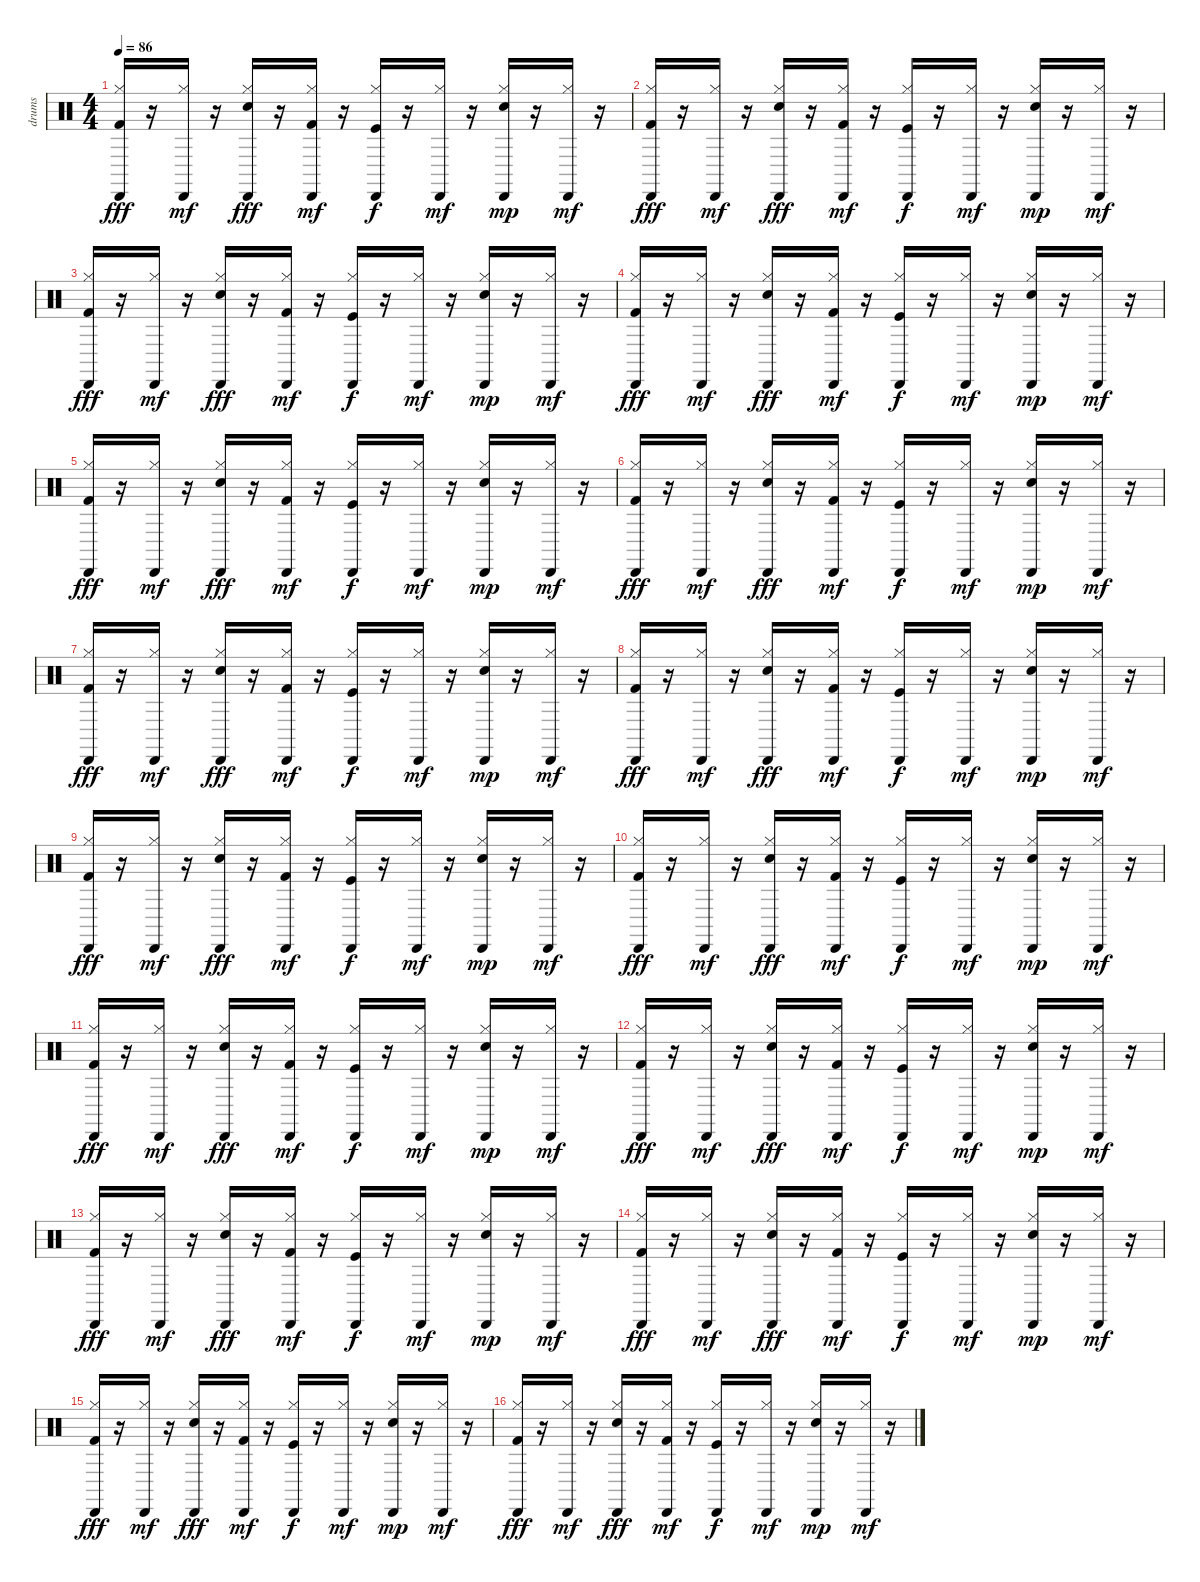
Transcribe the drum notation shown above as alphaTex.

\track ("drums" "drums") {instrument percussion}
\staff {score}
\articulation defaults
\ts (4 4)
\tempo 86
\clef neutral
\ks c
("Kick (hit) 2" "Hi-Hat (closed)" "Cabasa (hit)").16{dy fff} r.16 ("Hi-Hat (closed)" "Cabasa (hit)").16{dy mf} r.16 ("Snare (hit) 2" "Hi-Hat (closed)" "Cabasa (hit)").16{dy fff} r.16 ("Kick (hit) 2" "Hi-Hat (closed)" "Cabasa (hit)").16{dy mf} r.16 ("Kick (hit)" "Hi-Hat (closed)" "Cabasa (hit)").16{dy f} r.16 ("Hi-Hat (closed)" "Cabasa (hit)").16{dy mf} r.16 ("Snare (hit) 2" "Hi-Hat (closed)" "Cabasa (hit)").16{dy mp} r.16 ("Hi-Hat (closed)" "Cabasa (hit)").16{dy mf} r.16 |
("Kick (hit) 2" "Hi-Hat (closed)" "Cabasa (hit)").16{dy fff} r.16 ("Hi-Hat (closed)" "Cabasa (hit)").16{dy mf} r.16 ("Snare (hit) 2" "Hi-Hat (closed)" "Cabasa (hit)").16{dy fff} r.16 ("Kick (hit) 2" "Hi-Hat (closed)" "Cabasa (hit)").16{dy mf} r.16 ("Kick (hit)" "Hi-Hat (closed)" "Cabasa (hit)").16{dy f} r.16 ("Hi-Hat (closed)" "Cabasa (hit)").16{dy mf} r.16 ("Snare (hit) 2" "Hi-Hat (closed)" "Cabasa (hit)").16{dy mp} r.16 ("Hi-Hat (closed)" "Cabasa (hit)").16{dy mf} r.16 |
("Kick (hit) 2" "Hi-Hat (closed)" "Cabasa (hit)").16{dy fff} r.16 ("Hi-Hat (closed)" "Cabasa (hit)").16{dy mf} r.16 ("Snare (hit) 2" "Hi-Hat (closed)" "Cabasa (hit)").16{dy fff} r.16 ("Kick (hit) 2" "Hi-Hat (closed)" "Cabasa (hit)").16{dy mf} r.16 ("Kick (hit)" "Hi-Hat (closed)" "Cabasa (hit)").16{dy f} r.16 ("Hi-Hat (closed)" "Cabasa (hit)").16{dy mf} r.16 ("Snare (hit) 2" "Hi-Hat (closed)" "Cabasa (hit)").16{dy mp} r.16 ("Hi-Hat (closed)" "Cabasa (hit)").16{dy mf} r.16 |
("Kick (hit) 2" "Hi-Hat (closed)" "Cabasa (hit)").16{dy fff} r.16 ("Hi-Hat (closed)" "Cabasa (hit)").16{dy mf} r.16 ("Snare (hit) 2" "Hi-Hat (closed)" "Cabasa (hit)").16{dy fff} r.16 ("Kick (hit) 2" "Hi-Hat (closed)" "Cabasa (hit)").16{dy mf} r.16 ("Kick (hit)" "Hi-Hat (closed)" "Cabasa (hit)").16{dy f} r.16 ("Hi-Hat (closed)" "Cabasa (hit)").16{dy mf} r.16 ("Snare (hit) 2" "Hi-Hat (closed)" "Cabasa (hit)").16{dy mp} r.16 ("Hi-Hat (closed)" "Cabasa (hit)").16{dy mf} r.16 |
("Kick (hit) 2" "Hi-Hat (closed)" "Cabasa (hit)").16{dy fff} r.16 ("Hi-Hat (closed)" "Cabasa (hit)").16{dy mf} r.16 ("Snare (hit) 2" "Hi-Hat (closed)" "Cabasa (hit)").16{dy fff} r.16 ("Kick (hit) 2" "Hi-Hat (closed)" "Cabasa (hit)").16{dy mf} r.16 ("Kick (hit)" "Hi-Hat (closed)" "Cabasa (hit)").16{dy f} r.16 ("Hi-Hat (closed)" "Cabasa (hit)").16{dy mf} r.16 ("Snare (hit) 2" "Hi-Hat (closed)" "Cabasa (hit)").16{dy mp} r.16 ("Hi-Hat (closed)" "Cabasa (hit)").16{dy mf} r.16 |
("Kick (hit) 2" "Hi-Hat (closed)" "Cabasa (hit)").16{dy fff} r.16 ("Hi-Hat (closed)" "Cabasa (hit)").16{dy mf} r.16 ("Snare (hit) 2" "Hi-Hat (closed)" "Cabasa (hit)").16{dy fff} r.16 ("Kick (hit) 2" "Hi-Hat (closed)" "Cabasa (hit)").16{dy mf} r.16 ("Kick (hit)" "Hi-Hat (closed)" "Cabasa (hit)").16{dy f} r.16 ("Hi-Hat (closed)" "Cabasa (hit)").16{dy mf} r.16 ("Snare (hit) 2" "Hi-Hat (closed)" "Cabasa (hit)").16{dy mp} r.16 ("Hi-Hat (closed)" "Cabasa (hit)").16{dy mf} r.16 |
("Kick (hit) 2" "Hi-Hat (closed)" "Cabasa (hit)").16{dy fff} r.16 ("Hi-Hat (closed)" "Cabasa (hit)").16{dy mf} r.16 ("Snare (hit) 2" "Hi-Hat (closed)" "Cabasa (hit)").16{dy fff} r.16 ("Kick (hit) 2" "Hi-Hat (closed)" "Cabasa (hit)").16{dy mf} r.16 ("Kick (hit)" "Hi-Hat (closed)" "Cabasa (hit)").16{dy f} r.16 ("Hi-Hat (closed)" "Cabasa (hit)").16{dy mf} r.16 ("Snare (hit) 2" "Hi-Hat (closed)" "Cabasa (hit)").16{dy mp} r.16 ("Hi-Hat (closed)" "Cabasa (hit)").16{dy mf} r.16 |
("Kick (hit) 2" "Hi-Hat (closed)" "Cabasa (hit)").16{dy fff} r.16 ("Hi-Hat (closed)" "Cabasa (hit)").16{dy mf} r.16 ("Snare (hit) 2" "Hi-Hat (closed)" "Cabasa (hit)").16{dy fff} r.16 ("Kick (hit) 2" "Hi-Hat (closed)" "Cabasa (hit)").16{dy mf} r.16 ("Kick (hit)" "Hi-Hat (closed)" "Cabasa (hit)").16{dy f} r.16 ("Hi-Hat (closed)" "Cabasa (hit)").16{dy mf} r.16 ("Snare (hit) 2" "Hi-Hat (closed)" "Cabasa (hit)").16{dy mp} r.16 ("Hi-Hat (closed)" "Cabasa (hit)").16{dy mf} r.16 |
("Kick (hit) 2" "Hi-Hat (closed)" "Cabasa (hit)").16{dy fff} r.16 ("Hi-Hat (closed)" "Cabasa (hit)").16{dy mf} r.16 ("Snare (hit) 2" "Hi-Hat (closed)" "Cabasa (hit)").16{dy fff} r.16 ("Kick (hit) 2" "Hi-Hat (closed)" "Cabasa (hit)").16{dy mf} r.16 ("Kick (hit)" "Hi-Hat (closed)" "Cabasa (hit)").16{dy f} r.16 ("Hi-Hat (closed)" "Cabasa (hit)").16{dy mf} r.16 ("Snare (hit) 2" "Hi-Hat (closed)" "Cabasa (hit)").16{dy mp} r.16 ("Hi-Hat (closed)" "Cabasa (hit)").16{dy mf} r.16 |
("Kick (hit) 2" "Hi-Hat (closed)" "Cabasa (hit)").16{dy fff} r.16 ("Hi-Hat (closed)" "Cabasa (hit)").16{dy mf} r.16 ("Snare (hit) 2" "Hi-Hat (closed)" "Cabasa (hit)").16{dy fff} r.16 ("Kick (hit) 2" "Hi-Hat (closed)" "Cabasa (hit)").16{dy mf} r.16 ("Kick (hit)" "Hi-Hat (closed)" "Cabasa (hit)").16{dy f} r.16 ("Hi-Hat (closed)" "Cabasa (hit)").16{dy mf} r.16 ("Snare (hit) 2" "Hi-Hat (closed)" "Cabasa (hit)").16{dy mp} r.16 ("Hi-Hat (closed)" "Cabasa (hit)").16{dy mf} r.16 |
("Kick (hit) 2" "Hi-Hat (closed)" "Cabasa (hit)").16{dy fff} r.16 ("Hi-Hat (closed)" "Cabasa (hit)").16{dy mf} r.16 ("Snare (hit) 2" "Hi-Hat (closed)" "Cabasa (hit)").16{dy fff} r.16 ("Kick (hit) 2" "Hi-Hat (closed)" "Cabasa (hit)").16{dy mf} r.16 ("Kick (hit)" "Hi-Hat (closed)" "Cabasa (hit)").16{dy f} r.16 ("Hi-Hat (closed)" "Cabasa (hit)").16{dy mf} r.16 ("Snare (hit) 2" "Hi-Hat (closed)" "Cabasa (hit)").16{dy mp} r.16 ("Hi-Hat (closed)" "Cabasa (hit)").16{dy mf} r.16 |
("Kick (hit) 2" "Hi-Hat (closed)" "Cabasa (hit)").16{dy fff} r.16 ("Hi-Hat (closed)" "Cabasa (hit)").16{dy mf} r.16 ("Snare (hit) 2" "Hi-Hat (closed)" "Cabasa (hit)").16{dy fff} r.16 ("Kick (hit) 2" "Hi-Hat (closed)" "Cabasa (hit)").16{dy mf} r.16 ("Kick (hit)" "Hi-Hat (closed)" "Cabasa (hit)").16{dy f} r.16 ("Hi-Hat (closed)" "Cabasa (hit)").16{dy mf} r.16 ("Snare (hit) 2" "Hi-Hat (closed)" "Cabasa (hit)").16{dy mp} r.16 ("Hi-Hat (closed)" "Cabasa (hit)").16{dy mf} r.16 |
("Kick (hit) 2" "Hi-Hat (closed)" "Cabasa (hit)").16{dy fff} r.16 ("Hi-Hat (closed)" "Cabasa (hit)").16{dy mf} r.16 ("Snare (hit) 2" "Hi-Hat (closed)" "Cabasa (hit)").16{dy fff} r.16 ("Kick (hit) 2" "Hi-Hat (closed)" "Cabasa (hit)").16{dy mf} r.16 ("Kick (hit)" "Hi-Hat (closed)" "Cabasa (hit)").16{dy f} r.16 ("Hi-Hat (closed)" "Cabasa (hit)").16{dy mf} r.16 ("Snare (hit) 2" "Hi-Hat (closed)" "Cabasa (hit)").16{dy mp} r.16 ("Hi-Hat (closed)" "Cabasa (hit)").16{dy mf} r.16 |
("Kick (hit) 2" "Hi-Hat (closed)" "Cabasa (hit)").16{dy fff} r.16 ("Hi-Hat (closed)" "Cabasa (hit)").16{dy mf} r.16 ("Snare (hit) 2" "Hi-Hat (closed)" "Cabasa (hit)").16{dy fff} r.16 ("Kick (hit) 2" "Hi-Hat (closed)" "Cabasa (hit)").16{dy mf} r.16 ("Kick (hit)" "Hi-Hat (closed)" "Cabasa (hit)").16{dy f} r.16 ("Hi-Hat (closed)" "Cabasa (hit)").16{dy mf} r.16 ("Snare (hit) 2" "Hi-Hat (closed)" "Cabasa (hit)").16{dy mp} r.16 ("Hi-Hat (closed)" "Cabasa (hit)").16{dy mf} r.16 |
("Kick (hit) 2" "Hi-Hat (closed)" "Cabasa (hit)").16{dy fff} r.16 ("Hi-Hat (closed)" "Cabasa (hit)").16{dy mf} r.16 ("Snare (hit) 2" "Hi-Hat (closed)" "Cabasa (hit)").16{dy fff} r.16 ("Kick (hit) 2" "Hi-Hat (closed)" "Cabasa (hit)").16{dy mf} r.16 ("Kick (hit)" "Hi-Hat (closed)" "Cabasa (hit)").16{dy f} r.16 ("Hi-Hat (closed)" "Cabasa (hit)").16{dy mf} r.16 ("Snare (hit) 2" "Hi-Hat (closed)" "Cabasa (hit)").16{dy mp} r.16 ("Hi-Hat (closed)" "Cabasa (hit)").16{dy mf} r.16 |
("Kick (hit) 2" "Hi-Hat (closed)" "Cabasa (hit)").16{dy fff} r.16 ("Hi-Hat (closed)" "Cabasa (hit)").16{dy mf} r.16 ("Snare (hit) 2" "Hi-Hat (closed)" "Cabasa (hit)").16{dy fff} r.16 ("Kick (hit) 2" "Hi-Hat (closed)" "Cabasa (hit)").16{dy mf} r.16 ("Kick (hit)" "Hi-Hat (closed)" "Cabasa (hit)").16{dy f} r.16 ("Hi-Hat (closed)" "Cabasa (hit)").16{dy mf} r.16 ("Snare (hit) 2" "Hi-Hat (closed)" "Cabasa (hit)").16{dy mp} r.16 ("Hi-Hat (closed)" "Cabasa (hit)").16{dy mf} r.16
